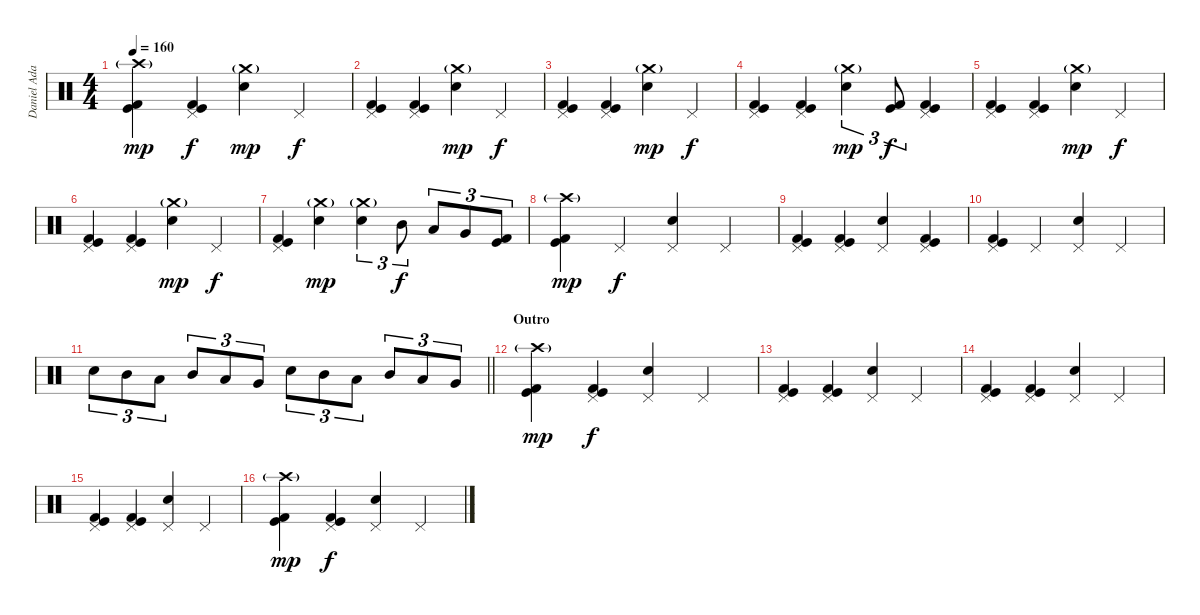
\track ("Daniel Adair" "Daniel Ada") {instrument percussion}
\staff {score}
\articulation defaults
\ts (4 4)
\tempo 160
\clef neutral
\ks c
("Crash high (hit)"{g} "Kick (hit)" "Kick (hit) 2").4{dy mp} ("Pedal Hi-Hat (hit)" "Kick (hit)" "Kick (hit) 2").4{dy f} ("Crash medium (hit)"{g} "Electric Snare (hit)").4{dy mp} "Pedal Hi-Hat (hit)".4{dy f} |
("Pedal Hi-Hat (hit)" "Kick (hit)" "Kick (hit) 2").4 ("Pedal Hi-Hat (hit)" "Kick (hit)" "Kick (hit) 2").4 ("Crash medium (hit)"{g} "Electric Snare (hit)").4{dy mp} "Pedal Hi-Hat (hit)".4{dy f} |
("Pedal Hi-Hat (hit)" "Kick (hit)" "Kick (hit) 2").4 ("Pedal Hi-Hat (hit)" "Kick (hit)" "Kick (hit) 2").4 ("Crash medium (hit)"{g} "Electric Snare (hit)").4{dy mp} "Pedal Hi-Hat (hit)".4{dy f} |
("Pedal Hi-Hat (hit)" "Kick (hit)" "Kick (hit) 2").4 ("Pedal Hi-Hat (hit)" "Kick (hit)" "Kick (hit) 2").4 ("Crash medium (hit)"{g} "Electric Snare (hit)").4{tu (3 2) dy mp} ("Kick (hit)" "Kick (hit) 2").8{tu (3 2) dy f} ("Pedal Hi-Hat (hit)" "Kick (hit)" "Kick (hit) 2").4 |
("Pedal Hi-Hat (hit)" "Kick (hit)" "Kick (hit) 2").4 ("Pedal Hi-Hat (hit)" "Kick (hit)" "Kick (hit) 2").4 ("Crash medium (hit)"{g} "Electric Snare (hit)").4{dy mp} "Pedal Hi-Hat (hit)".4{dy f} |
("Pedal Hi-Hat (hit)" "Kick (hit)" "Kick (hit) 2").4 ("Pedal Hi-Hat (hit)" "Kick (hit)" "Kick (hit) 2").4 ("Crash medium (hit)"{g} "Electric Snare (hit)").4{dy mp} "Pedal Hi-Hat (hit)".4{dy f} |
("Pedal Hi-Hat (hit)" "Kick (hit)" "Kick (hit) 2").4 ("Crash medium (hit)"{g} "Electric Snare (hit)").4{dy mp} ("Crash medium (hit)"{g} "Electric Snare (hit)").4{tu (3 2)} "Mid Tom (hit)".8{tu (3 2) dy f} "Low Tom (hit)".8{tu (3 2)} "Very Low Tom (hit)".8{tu (3 2)} ("Kick (hit)" "Kick (hit) 2").8{tu (3 2)} |
("Crash high (hit)"{g} "Kick (hit)" "Kick (hit) 2").4{dy mp} "Pedal Hi-Hat (hit)".4{dy f} ("Pedal Hi-Hat (hit)" "Electric Snare (hit)").4 "Pedal Hi-Hat (hit)".4 |
("Pedal Hi-Hat (hit)" "Kick (hit)" "Kick (hit) 2").4 ("Pedal Hi-Hat (hit)" "Kick (hit)" "Kick (hit) 2").4 ("Pedal Hi-Hat (hit)" "Electric Snare (hit)").4 ("Pedal Hi-Hat (hit)" "Kick (hit)" "Kick (hit) 2").4 |
("Pedal Hi-Hat (hit)" "Kick (hit)" "Kick (hit) 2").4 "Pedal Hi-Hat (hit)".4 ("Pedal Hi-Hat (hit)" "Electric Snare (hit)").4 "Pedal Hi-Hat (hit)".4 |
\barLineRight lightlight "Electric Snare (hit)".8{tu (3 2)} "Mid Tom (hit)".8{tu (3 2)} "Low Tom (hit)".8{tu (3 2)} "Mid Tom (hit)".8{tu (3 2)} "Low Tom (hit)".8{tu (3 2)} "Very Low Tom (hit)".8{tu (3 2)} "Electric Snare (hit)".8{tu (3 2)} "Mid Tom (hit)".8{tu (3 2)} "Low Tom (hit)".8{tu (3 2)} "Mid Tom (hit)".8{tu (3 2)} "Low Tom (hit)".8{tu (3 2)} "Very Low Tom (hit)".8{tu (3 2)}
|
\section ("" "Outro")
("Crash high (hit)"{g} "Kick (hit)" "Kick (hit) 2").4{dy mp} ("Pedal Hi-Hat (hit)" "Kick (hit)" "Kick (hit) 2").4{dy f} ("Pedal Hi-Hat (hit)" "Electric Snare (hit)").4 "Pedal Hi-Hat (hit)".4 |
("Pedal Hi-Hat (hit)" "Kick (hit)" "Kick (hit) 2").4 ("Pedal Hi-Hat (hit)" "Kick (hit)" "Kick (hit) 2").4 ("Pedal Hi-Hat (hit)" "Electric Snare (hit)").4 "Pedal Hi-Hat (hit)".4 |
("Pedal Hi-Hat (hit)" "Kick (hit)" "Kick (hit) 2").4 ("Pedal Hi-Hat (hit)" "Kick (hit)" "Kick (hit) 2").4 ("Pedal Hi-Hat (hit)" "Electric Snare (hit)").4 "Pedal Hi-Hat (hit)".4 |
("Pedal Hi-Hat (hit)" "Kick (hit)" "Kick (hit) 2").4 ("Pedal Hi-Hat (hit)" "Kick (hit)" "Kick (hit) 2").4 ("Pedal Hi-Hat (hit)" "Electric Snare (hit)").4 "Pedal Hi-Hat (hit)".4 |
("Crash high (hit)"{g} "Kick (hit)" "Kick (hit) 2").4{dy mp} ("Pedal Hi-Hat (hit)" "Kick (hit)" "Kick (hit) 2").4{dy f} ("Pedal Hi-Hat (hit)" "Electric Snare (hit)").4 "Pedal Hi-Hat (hit)".4
